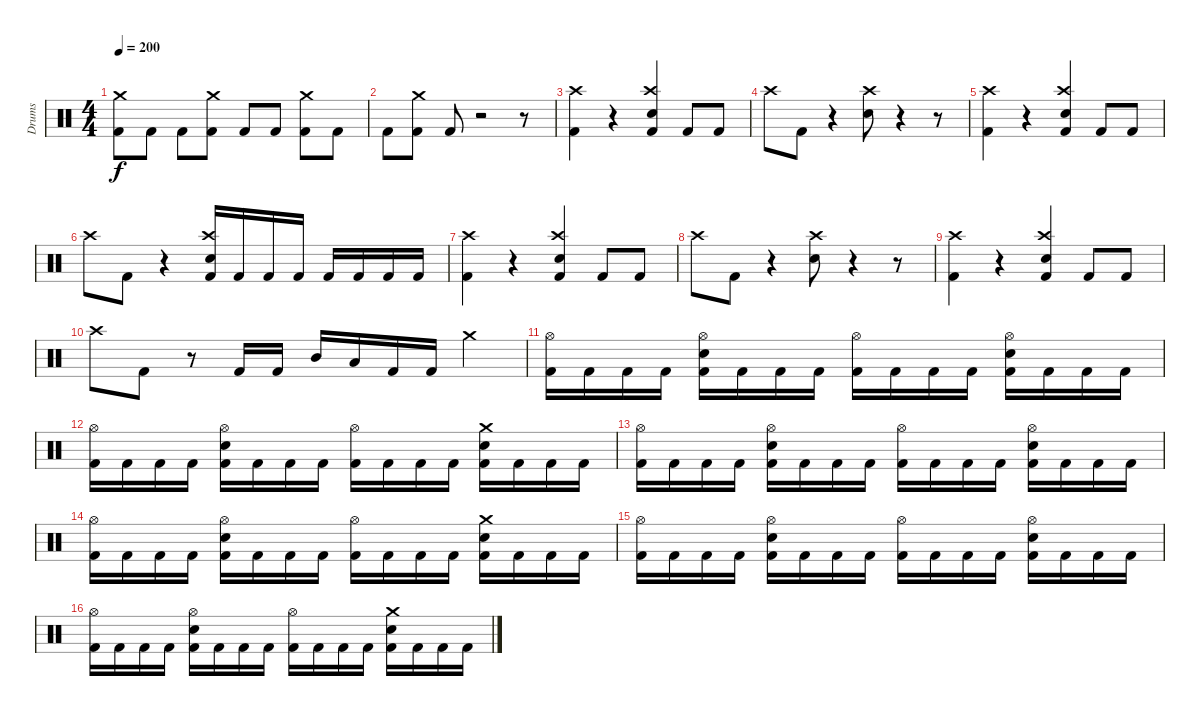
\track ("Drums" "Drums") {instrument percussion}
\staff {score}
\articulation defaults
\ts (4 4)
\section ("" "")
\tempo 200
\clef neutral
\ks c
("Crash medium (hit)" "Kick (hit) 2").8{dy f} "Kick (hit) 2".8 "Kick (hit) 2".8 ("Crash medium (hit)" "Kick (hit) 2").8 "Kick (hit) 2".8 "Kick (hit) 2".8 ("Crash medium (hit)" "Kick (hit) 2").8 "Kick (hit) 2".8 |
"Kick (hit) 2".8 ("Crash medium (hit)" "Kick (hit) 2").8 "Kick (hit) 2".8 r.2 r.8 |
("Crash high (hit)" "Kick (hit) 2").4 r.4 ("Crash high (hit)" "Electric Snare (hit)" "Kick (hit) 2").4 "Kick (hit) 2".8 "Kick (hit) 2".8 |
"Crash high (hit)".8 "Kick (hit) 2".8 r.4 ("Crash high (hit)" "Electric Snare (hit)").8 r.4 r.8 |
("Crash high (hit)" "Kick (hit) 2").4 r.4 ("Crash high (hit)" "Electric Snare (hit)" "Kick (hit) 2").4 "Kick (hit) 2".8 "Kick (hit) 2".8 |
"Crash high (hit)".8 "Kick (hit) 2".8 r.4 ("Crash high (hit)" "Electric Snare (hit)" "Kick (hit) 2").16 "Kick (hit) 2".16 "Kick (hit) 2".16 "Kick (hit) 2".16 "Kick (hit) 2".16 "Kick (hit) 2".16 "Kick (hit) 2".16 "Kick (hit) 2".16 |
("Crash high (hit)" "Kick (hit) 2").4 r.4 ("Crash high (hit)" "Electric Snare (hit)" "Kick (hit) 2").4 "Kick (hit) 2".8 "Kick (hit) 2".8 |
"Crash high (hit)".8 "Kick (hit) 2".8 r.4 ("Crash high (hit)" "Electric Snare (hit)").8 r.4 r.8 |
("Crash high (hit)" "Kick (hit) 2").4 r.4 ("Crash high (hit)" "Electric Snare (hit)" "Kick (hit) 2").4 "Kick (hit) 2".8 "Kick (hit) 2".8 |
"Crash high (hit)".8 "Kick (hit) 2".8 r.8 "Kick (hit) 2".16 "Kick (hit) 2".16 "Mid Tom (hit)".16 "Low Tom (hit)".16 "Kick (hit) 2".16 "Kick (hit) 2".16 "Crash medium (hit)".4 |
("Hi-Hat (open)" "Kick (hit) 2").16 "Kick (hit) 2".16 "Kick (hit) 2".16 "Kick (hit) 2".16 ("Hi-Hat (open)" "Electric Snare (hit)" "Kick (hit) 2").16 "Kick (hit) 2".16 "Kick (hit) 2".16 "Kick (hit) 2".16 ("Hi-Hat (open)" "Kick (hit) 2").16 "Kick (hit) 2".16 "Kick (hit) 2".16 "Kick (hit) 2".16 ("Hi-Hat (open)" "Electric Snare (hit)" "Kick (hit) 2").16 "Kick (hit) 2".16 "Kick (hit) 2".16 "Kick (hit) 2".16 |
("Hi-Hat (open)" "Kick (hit) 2").16 "Kick (hit) 2".16 "Kick (hit) 2".16 "Kick (hit) 2".16 ("Hi-Hat (open)" "Electric Snare (hit)" "Kick (hit) 2").16 "Kick (hit) 2".16 "Kick (hit) 2".16 "Kick (hit) 2".16 ("Hi-Hat (open)" "Kick (hit) 2").16 "Kick (hit) 2".16 "Kick (hit) 2".16 "Kick (hit) 2".16 ("Crash medium (hit)" "Electric Snare (hit)" "Kick (hit) 2").16 "Kick (hit) 2".16 "Kick (hit) 2".16 "Kick (hit) 2".16 |
("Hi-Hat (open)" "Kick (hit) 2").16 "Kick (hit) 2".16 "Kick (hit) 2".16 "Kick (hit) 2".16 ("Hi-Hat (open)" "Electric Snare (hit)" "Kick (hit) 2").16 "Kick (hit) 2".16 "Kick (hit) 2".16 "Kick (hit) 2".16 ("Hi-Hat (open)" "Kick (hit) 2").16 "Kick (hit) 2".16 "Kick (hit) 2".16 "Kick (hit) 2".16 ("Hi-Hat (open)" "Electric Snare (hit)" "Kick (hit) 2").16 "Kick (hit) 2".16 "Kick (hit) 2".16 "Kick (hit) 2".16 |
("Hi-Hat (open)" "Kick (hit) 2").16 "Kick (hit) 2".16 "Kick (hit) 2".16 "Kick (hit) 2".16 ("Hi-Hat (open)" "Electric Snare (hit)" "Kick (hit) 2").16 "Kick (hit) 2".16 "Kick (hit) 2".16 "Kick (hit) 2".16 ("Hi-Hat (open)" "Kick (hit) 2").16 "Kick (hit) 2".16 "Kick (hit) 2".16 "Kick (hit) 2".16 ("Crash medium (hit)" "Electric Snare (hit)" "Kick (hit) 2").16 "Kick (hit) 2".16 "Kick (hit) 2".16 "Kick (hit) 2".16 |
("Hi-Hat (open)" "Kick (hit) 2").16 "Kick (hit) 2".16 "Kick (hit) 2".16 "Kick (hit) 2".16 ("Hi-Hat (open)" "Electric Snare (hit)" "Kick (hit) 2").16 "Kick (hit) 2".16 "Kick (hit) 2".16 "Kick (hit) 2".16 ("Hi-Hat (open)" "Kick (hit) 2").16 "Kick (hit) 2".16 "Kick (hit) 2".16 "Kick (hit) 2".16 ("Hi-Hat (open)" "Electric Snare (hit)" "Kick (hit) 2").16 "Kick (hit) 2".16 "Kick (hit) 2".16 "Kick (hit) 2".16 |
("Hi-Hat (open)" "Kick (hit) 2").16 "Kick (hit) 2".16 "Kick (hit) 2".16 "Kick (hit) 2".16 ("Hi-Hat (open)" "Electric Snare (hit)" "Kick (hit) 2").16 "Kick (hit) 2".16 "Kick (hit) 2".16 "Kick (hit) 2".16 ("Hi-Hat (open)" "Kick (hit) 2").16 "Kick (hit) 2".16 "Kick (hit) 2".16 "Kick (hit) 2".16 ("Crash medium (hit)" "Electric Snare (hit)" "Kick (hit) 2").16 "Kick (hit) 2".16 "Kick (hit) 2".16 "Kick (hit) 2".16
